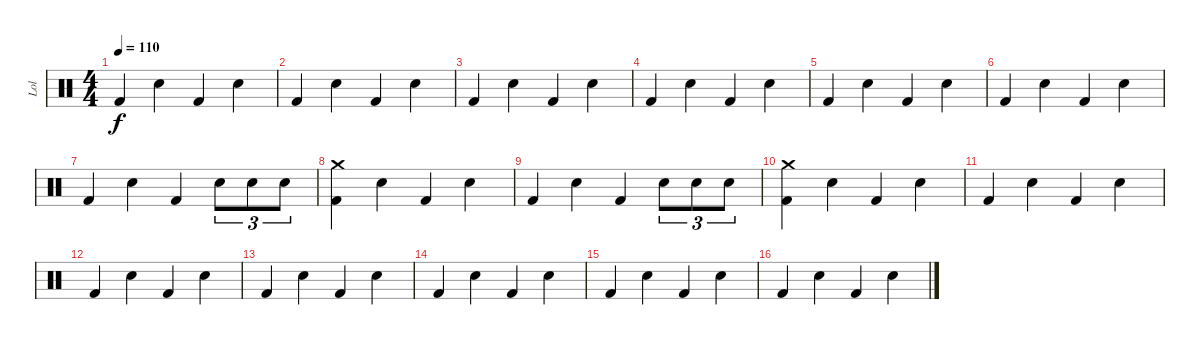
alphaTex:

\track ("Lol" "Lol") {instrument percussion}
\staff {score}
\articulation defaults
\ts (4 4)
\tempo 110
\clef neutral
\ks c "Kick (hit) 2".4{dy f} "Electric Snare (hit)".4 "Kick (hit) 2".4 "Electric Snare (hit)".4
|
"Kick (hit) 2".4 "Electric Snare (hit)".4 "Kick (hit) 2".4 "Electric Snare (hit)".4 |
"Kick (hit) 2".4 "Electric Snare (hit)".4 "Kick (hit) 2".4 "Electric Snare (hit)".4 |
"Kick (hit) 2".4 "Electric Snare (hit)".4 "Kick (hit) 2".4 "Electric Snare (hit)".4 |
"Kick (hit) 2".4 "Electric Snare (hit)".4 "Kick (hit) 2".4 "Electric Snare (hit)".4 |
"Kick (hit) 2".4 "Electric Snare (hit)".4 "Kick (hit) 2".4 "Electric Snare (hit)".4 |
"Kick (hit) 2".4 "Electric Snare (hit)".4 "Kick (hit) 2".4 "Electric Snare (hit)".8{tu (3 2)} "Electric Snare (hit)".8{tu (3 2)} "Electric Snare (hit)".8{tu (3 2)} |
("Kick (hit) 2" "Crash medium (hit)").4 "Electric Snare (hit)".4 "Kick (hit) 2".4 "Electric Snare (hit)".4 |
"Kick (hit) 2".4 "Electric Snare (hit)".4 "Kick (hit) 2".4 "Electric Snare (hit)".8{tu (3 2)} "Electric Snare (hit)".8{tu (3 2)} "Electric Snare (hit)".8{tu (3 2)} |
("Kick (hit) 2" "Crash medium (hit)").4 "Electric Snare (hit)".4 "Kick (hit) 2".4 "Electric Snare (hit)".4 |
"Kick (hit) 2".4 "Electric Snare (hit)".4 "Kick (hit) 2".4 "Electric Snare (hit)".4 |
"Kick (hit) 2".4 "Electric Snare (hit)".4 "Kick (hit) 2".4 "Electric Snare (hit)".4 |
"Kick (hit) 2".4 "Electric Snare (hit)".4 "Kick (hit) 2".4 "Electric Snare (hit)".4 |
"Kick (hit) 2".4 "Electric Snare (hit)".4 "Kick (hit) 2".4 "Electric Snare (hit)".4 |
"Kick (hit) 2".4 "Electric Snare (hit)".4 "Kick (hit) 2".4 "Electric Snare (hit)".4 |
"Kick (hit) 2".4 "Electric Snare (hit)".4 "Kick (hit) 2".4 "Electric Snare (hit)".4
